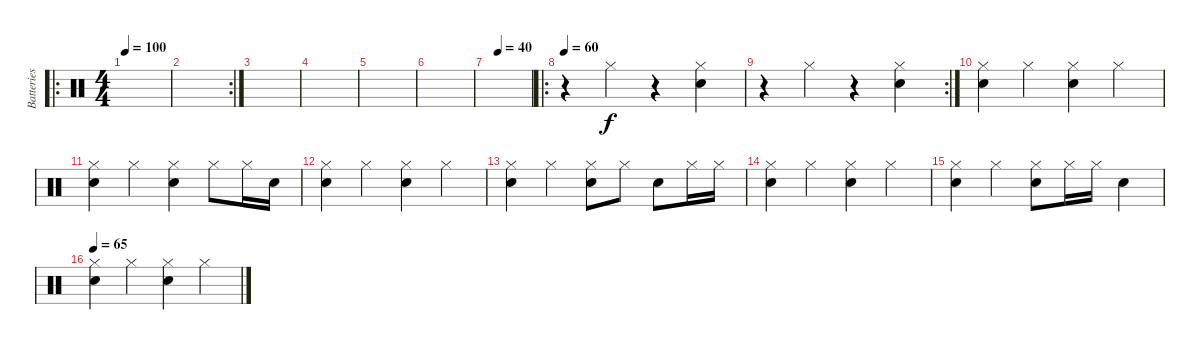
\track ("Batteries" "Batteries") {instrument percussion}
\staff {score}
\articulation defaults
\ro
\ts (4 4)
\tempo 100
\tempo 50
\tempo 100
\clef neutral
\ks c
|
\rc 2
|
|
|
|
|
\tempo (40 0.25)
|
\ro
\tempo 60
r.4 "Hi-Hat (closed)".4 r.4 ("Hi-Hat (closed)" "Snare (hit) 2").4 |
\rc 2
r.4 "Hi-Hat (closed)".4 r.4 ("Hi-Hat (closed)" "Snare (hit) 2").4 |
("Hi-Hat (closed)" "Snare (hit) 2").4 "Hi-Hat (closed)".4 ("Hi-Hat (closed)" "Snare (hit) 2").4 "Hi-Hat (closed)".4 |
("Snare (hit) 2" "Hi-Hat (closed)").4 "Hi-Hat (closed)".4 ("Snare (hit) 2" "Hi-Hat (closed)").4 "Hi-Hat (closed)".8 "Hi-Hat (closed)".16 "Snare (hit) 2".16 |
("Snare (hit) 2" "Hi-Hat (closed)").4 "Hi-Hat (closed)".4 ("Snare (hit) 2" "Hi-Hat (closed)").4 "Hi-Hat (closed)".4 |
("Snare (hit) 2" "Hi-Hat (closed)").4 "Hi-Hat (closed)".4 ("Snare (hit) 2" "Hi-Hat (closed)").8 "Hi-Hat (closed)".8 "Snare (hit) 2".8 "Hi-Hat (closed)".16 "Hi-Hat (closed)".16 |
("Snare (hit) 2" "Hi-Hat (closed)").4 "Hi-Hat (closed)".4 ("Snare (hit) 2" "Hi-Hat (closed)").4 "Hi-Hat (closed)".4 |
("Snare (hit) 2" "Hi-Hat (closed)").4 "Hi-Hat (closed)".4 ("Snare (hit) 2" "Hi-Hat (closed)").8 "Hi-Hat (closed)".16 "Hi-Hat (closed)".16 "Snare (hit) 2".4 |
\tempo 65
("Snare (hit) 2" "Hi-Hat (closed)").4 "Hi-Hat (closed)".4 ("Snare (hit) 2" "Hi-Hat (closed)").4 "Hi-Hat (closed)".4
